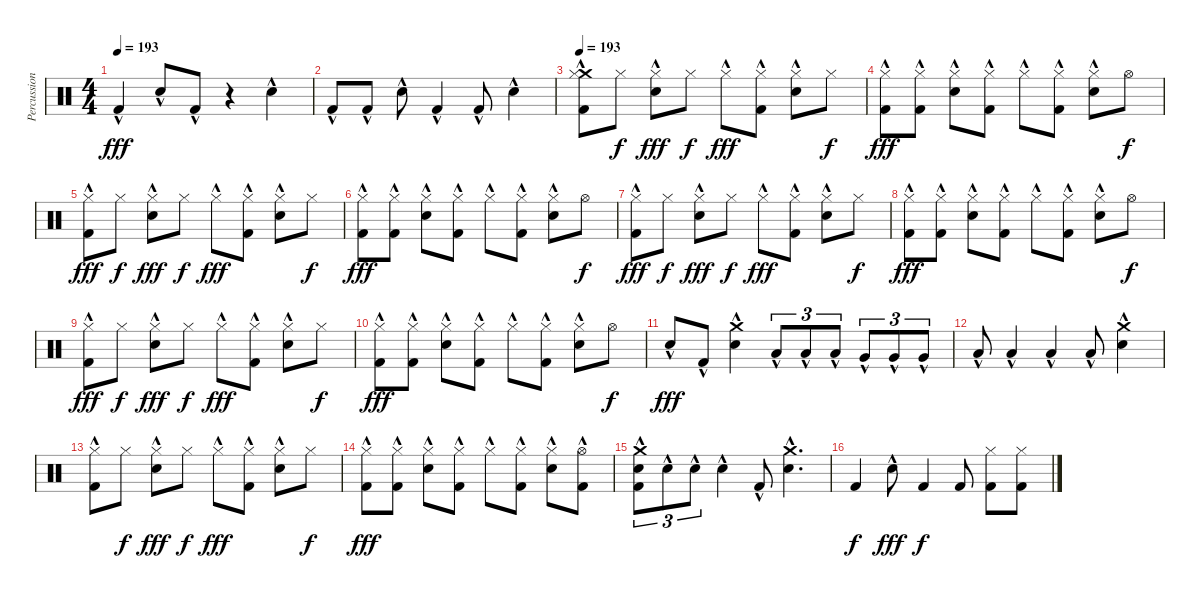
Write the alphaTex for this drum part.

\track ("Percussion" "Percussion") {instrument percussion}
\staff {score}
\articulation defaults
\ts (4 4)
\tempo 193
\clef neutral
\ks c "Kick (hit) 2"{hac}.4{dy fff} "Electric Snare (hit)"{hac}.8 "Kick (hit) 2"{hac}.8
r.4 "Electric Snare (hit)"{hac}.4 |
"Kick (hit) 2"{hac}.8 "Kick (hit) 2"{hac}.8 "Electric Snare (hit)"{hac}.8 "Kick (hit) 2"{hac}.4 "Kick (hit) 2"{hac}.8 "Electric Snare (hit)"{hac}.4 |
\tempo 193
("Crash medium (hit)"{hac} "Hi-Hat (closed)"{hac} "Kick (hit) 2"{hac}).8 "Hi-Hat (closed)".8{dy f} ("Hi-Hat (closed)"{hac} "Electric Snare (hit)"{hac}).8{dy fff} "Hi-Hat (closed)".8{dy f} "Hi-Hat (closed)"{hac}.8{dy fff} ("Hi-Hat (closed)" "Kick (hit) 2"{hac}).8 ("Hi-Hat (closed)"{hac} "Electric Snare (hit)"{hac}).8 "Hi-Hat (closed)".8{dy f} |
("Hi-Hat (closed)"{hac} "Kick (hit) 2"{hac}).8{dy fff} ("Hi-Hat (closed)" "Kick (hit) 2"{hac}).8 ("Hi-Hat (closed)"{hac} "Electric Snare (hit)"{hac}).8 ("Hi-Hat (closed)" "Kick (hit) 2"{hac}).8 "Hi-Hat (closed)"{hac}.8 ("Hi-Hat (closed)" "Kick (hit) 2"{hac}).8 ("Hi-Hat (closed)"{hac} "Electric Snare (hit)"{hac}).8 "Hi-Hat (open)".8{dy f} |
("Hi-Hat (closed)"{hac} "Kick (hit) 2"{hac}).8{dy fff} "Hi-Hat (closed)".8{dy f} ("Hi-Hat (closed)"{hac} "Electric Snare (hit)"{hac}).8{dy fff} "Hi-Hat (closed)".8{dy f} "Hi-Hat (closed)"{hac}.8{dy fff} ("Hi-Hat (closed)" "Kick (hit) 2"{hac}).8 ("Hi-Hat (closed)"{hac} "Electric Snare (hit)"{hac}).8 "Hi-Hat (closed)".8{dy f} |
("Hi-Hat (closed)"{hac} "Kick (hit) 2"{hac}).8{dy fff} ("Hi-Hat (closed)" "Kick (hit) 2"{hac}).8 ("Hi-Hat (closed)"{hac} "Electric Snare (hit)"{hac}).8 ("Hi-Hat (closed)" "Kick (hit) 2"{hac}).8 "Hi-Hat (closed)"{hac}.8 ("Hi-Hat (closed)" "Kick (hit) 2"{hac}).8 ("Hi-Hat (closed)"{hac} "Electric Snare (hit)"{hac}).8 "Hi-Hat (open)".8{dy f} |
("Hi-Hat (closed)"{hac} "Kick (hit) 2"{hac}).8{dy fff} "Hi-Hat (closed)".8{dy f} ("Hi-Hat (closed)"{hac} "Electric Snare (hit)"{hac}).8{dy fff} "Hi-Hat (closed)".8{dy f} "Hi-Hat (closed)"{hac}.8{dy fff} ("Hi-Hat (closed)" "Kick (hit) 2"{hac}).8 ("Hi-Hat (closed)"{hac} "Electric Snare (hit)"{hac}).8 "Hi-Hat (closed)".8{dy f} |
("Hi-Hat (closed)"{hac} "Kick (hit) 2"{hac}).8{dy fff} ("Hi-Hat (closed)" "Kick (hit) 2"{hac}).8 ("Hi-Hat (closed)"{hac} "Electric Snare (hit)"{hac}).8 ("Hi-Hat (closed)" "Kick (hit) 2"{hac}).8 "Hi-Hat (closed)"{hac}.8 ("Hi-Hat (closed)" "Kick (hit) 2"{hac}).8 ("Hi-Hat (closed)"{hac} "Electric Snare (hit)"{hac}).8 "Hi-Hat (open)".8{dy f} |
("Hi-Hat (closed)"{hac} "Kick (hit) 2"{hac}).8{dy fff} "Hi-Hat (closed)".8{dy f} ("Hi-Hat (closed)"{hac} "Electric Snare (hit)"{hac}).8{dy fff} "Hi-Hat (closed)".8{dy f} "Hi-Hat (closed)"{hac}.8{dy fff} ("Hi-Hat (closed)" "Kick (hit) 2"{hac}).8 ("Hi-Hat (closed)"{hac} "Electric Snare (hit)"{hac}).8 "Hi-Hat (closed)".8{dy f} |
("Hi-Hat (closed)"{hac} "Kick (hit) 2"{hac}).8{dy fff} ("Hi-Hat (closed)" "Kick (hit) 2"{hac}).8 ("Hi-Hat (closed)"{hac} "Electric Snare (hit)"{hac}).8 ("Hi-Hat (closed)" "Kick (hit) 2"{hac}).8 "Hi-Hat (closed)"{hac}.8 ("Hi-Hat (closed)" "Kick (hit) 2"{hac}).8 ("Hi-Hat (closed)"{hac} "Electric Snare (hit)"{hac}).8 "Hi-Hat (open)".8{dy f} |
"Electric Snare (hit)"{hac}.8{dy fff} "Kick (hit) 2"{hac}.8 ("Crash medium (hit)"{hac} "Electric Snare (hit)"{hac}).4 "Low Tom (hit)"{hac}.8{tu (3 2)} "Low Tom (hit)"{hac}.8{tu (3 2)} "Low Tom (hit)"{hac}.8{tu (3 2)} "Very Low Tom (hit)"{hac}.8{tu (3 2)} "Very Low Tom (hit)"{hac}.8{tu (3 2)} "Very Low Tom (hit)"{hac}.8{tu (3 2)} |
"Low Floor Tom (hit)"{hac}.8 "Low Floor Tom (hit)"{hac}.4 "Low Floor Tom (hit)"{hac}.4 "Low Floor Tom (hit)"{hac}.8 ("Crash medium (hit)"{hac} "Electric Snare (hit)"{hac}).4 |
("Hi-Hat (closed)"{hac} "Kick (hit) 2"{hac}).8 "Hi-Hat (closed)".8{dy f} ("Hi-Hat (closed)"{hac} "Electric Snare (hit)"{hac}).8{dy fff} "Hi-Hat (closed)".8{dy f} "Hi-Hat (closed)"{hac}.8{dy fff} ("Hi-Hat (closed)" "Kick (hit) 2"{hac}).8 ("Hi-Hat (closed)"{hac} "Electric Snare (hit)"{hac}).8 "Hi-Hat (closed)".8{dy f} |
("Hi-Hat (closed)"{hac} "Kick (hit) 2"{hac}).8{dy fff} ("Hi-Hat (closed)" "Kick (hit) 2"{hac}).8 ("Hi-Hat (closed)"{hac} "Electric Snare (hit)"{hac}).8 ("Hi-Hat (closed)" "Kick (hit) 2"{hac}).8 "Hi-Hat (closed)"{hac}.8 ("Hi-Hat (closed)" "Kick (hit) 2"{hac}).8 ("Hi-Hat (closed)"{hac} "Electric Snare (hit)"{hac}).8 ("Hi-Hat (open)" "Kick (hit) 2"{hac}).8 |
("Crash medium (hit)" "Electric Snare (hit)"{hac} "Kick (hit) 2"{hac}).8{tu (3 2)} "Electric Snare (hit)"{hac}.8{tu (3 2)} "Electric Snare (hit)"{hac}.8{tu (3 2)} "Electric Snare (hit)"{hac}.4 "Kick (hit) 2"{hac}.8 ("Crash medium (hit)" "Electric Snare (hit)"{hac}).4{d} |
"Kick (hit) 2".4{dy f} "Electric Snare (hit)"{hac}.8{dy fff} "Kick (hit) 2".4{dy f} "Kick (hit) 2".8 ("Hi-Hat (closed)" "Kick (hit) 2").8 ("Hi-Hat (closed)" "Kick (hit) 2").8
